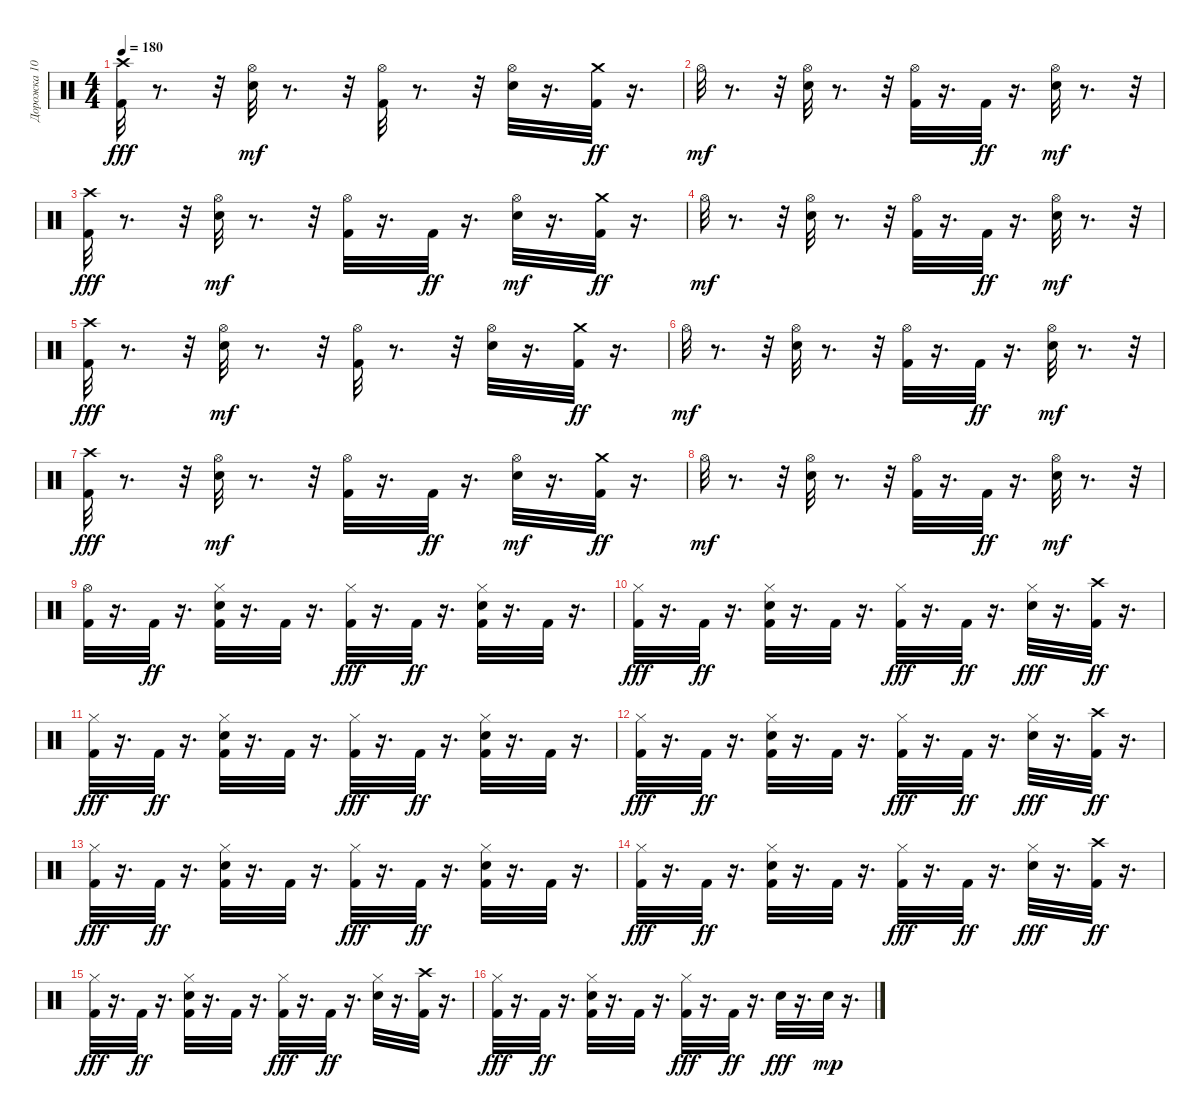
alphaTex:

\track ("Дорожка 10" "Дорожка 10") {instrument percussion}
\staff {score}
\articulation defaults
\ts (4 4)
\tempo 180
\clef neutral
\ks c
("Kick (hit) 2" "Crash high (hit)").32{dy fff} r.8{d} r.32 ("Snare (hit) 2" "Hi-Hat (open)").32{dy mf} r.8{d} r.32 ("Kick (hit) 2" "Hi-Hat (open)").32 r.8{d} r.32 ("Snare (hit) 2" "Hi-Hat (open)").32 r.16{d} ("Crash medium (hit)" "Kick (hit) 2").32{dy ff} r.16{d} |
"Hi-Hat (open)".32{dy mf} r.8{d} r.32 ("Snare (hit) 2" "Hi-Hat (open)").32 r.8{d} r.32 ("Kick (hit) 2" "Hi-Hat (open)").32 r.16{d} "Kick (hit) 2".32{dy ff} r.16{d} ("Snare (hit) 2" "Hi-Hat (open)").32{dy mf} r.8{d} r.32 |
("Kick (hit) 2" "Crash high (hit)").32{dy fff} r.8{d} r.32 ("Snare (hit) 2" "Hi-Hat (open)").32{dy mf} r.8{d} r.32 ("Kick (hit) 2" "Hi-Hat (open)").32 r.16{d} "Kick (hit) 2".32{dy ff} r.16{d} ("Snare (hit) 2" "Hi-Hat (open)").32{dy mf} r.16{d} ("Crash medium (hit)" "Kick (hit) 2").32{dy ff} r.16{d} |
"Hi-Hat (open)".32{dy mf} r.8{d} r.32 ("Snare (hit) 2" "Hi-Hat (open)").32 r.8{d} r.32 ("Kick (hit) 2" "Hi-Hat (open)").32 r.16{d} "Kick (hit) 2".32{dy ff} r.16{d} ("Snare (hit) 2" "Hi-Hat (open)").32{dy mf} r.8{d} r.32 |
("Kick (hit) 2" "Crash high (hit)").32{dy fff} r.8{d} r.32 ("Snare (hit) 2" "Hi-Hat (open)").32{dy mf} r.8{d} r.32 ("Kick (hit) 2" "Hi-Hat (open)").32 r.8{d} r.32 ("Snare (hit) 2" "Hi-Hat (open)").32 r.16{d} ("Crash medium (hit)" "Kick (hit) 2").32{dy ff} r.16{d} |
"Hi-Hat (open)".32{dy mf} r.8{d} r.32 ("Snare (hit) 2" "Hi-Hat (open)").32 r.8{d} r.32 ("Kick (hit) 2" "Hi-Hat (open)").32 r.16{d} "Kick (hit) 2".32{dy ff} r.16{d} ("Snare (hit) 2" "Hi-Hat (open)").32{dy mf} r.8{d} r.32 |
("Kick (hit) 2" "Crash high (hit)").32{dy fff} r.8{d} r.32 ("Snare (hit) 2" "Hi-Hat (open)").32{dy mf} r.8{d} r.32 ("Kick (hit) 2" "Hi-Hat (open)").32 r.16{d} "Kick (hit) 2".32{dy ff} r.16{d} ("Snare (hit) 2" "Hi-Hat (open)").32{dy mf} r.16{d} ("Crash medium (hit)" "Kick (hit) 2").32{dy ff} r.16{d} |
"Hi-Hat (open)".32{dy mf} r.8{d} r.32 ("Snare (hit) 2" "Hi-Hat (open)").32 r.8{d} r.32 ("Kick (hit) 2" "Hi-Hat (open)").32 r.16{d} "Kick (hit) 2".32{dy ff} r.16{d} ("Snare (hit) 2" "Hi-Hat (open)").32{dy mf} r.8{d} r.32 |
("Kick (hit) 2" "Hi-Hat (open)").32 r.16{d} "Kick (hit) 2".32{dy ff} r.16{d} ("Kick (hit) 2" "Snare (hit) 2" "Hi-Hat (closed)").32 r.16{d} "Kick (hit) 2".32 r.16{d} ("Kick (hit) 2" "Hi-Hat (closed)").32{dy fff} r.16{d} "Kick (hit) 2".32{dy ff} r.16{d} ("Kick (hit) 2" "Snare (hit) 2" "Hi-Hat (closed)").32 r.16{d} "Kick (hit) 2".32 r.16{d} |
("Hi-Hat (closed)" "Kick (hit) 2").32{dy fff} r.16{d} "Kick (hit) 2".32{dy ff} r.16{d} ("Kick (hit) 2" "Snare (hit) 2" "Hi-Hat (closed)").32 r.16{d} "Kick (hit) 2".32 r.16{d} ("Kick (hit) 2" "Hi-Hat (closed)").32{dy fff} r.16{d} "Kick (hit) 2".32{dy ff} r.16{d} ("Snare (hit) 2" "Hi-Hat (closed)").32{dy fff} r.16{d} ("Kick (hit) 2" "Crash high (hit)").32{dy ff} r.16{d} |
("Kick (hit) 2" "Hi-Hat (closed)").32{dy fff} r.16{d} "Kick (hit) 2".32{dy ff} r.16{d} ("Kick (hit) 2" "Snare (hit) 2" "Hi-Hat (closed)").32 r.16{d} "Kick (hit) 2".32 r.16{d} ("Kick (hit) 2" "Hi-Hat (closed)").32{dy fff} r.16{d} "Kick (hit) 2".32{dy ff} r.16{d} ("Kick (hit) 2" "Snare (hit) 2" "Hi-Hat (closed)").32 r.16{d} "Kick (hit) 2".32 r.16{d} |
("Hi-Hat (closed)" "Kick (hit) 2").32{dy fff} r.16{d} "Kick (hit) 2".32{dy ff} r.16{d} ("Kick (hit) 2" "Snare (hit) 2" "Hi-Hat (closed)").32 r.16{d} "Kick (hit) 2".32 r.16{d} ("Kick (hit) 2" "Hi-Hat (closed)").32{dy fff} r.16{d} "Kick (hit) 2".32{dy ff} r.16{d} ("Snare (hit) 2" "Hi-Hat (closed)").32{dy fff} r.16{d} ("Kick (hit) 2" "Crash high (hit)").32{dy ff} r.16{d} |
("Kick (hit) 2" "Hi-Hat (closed)").32{dy fff} r.16{d} "Kick (hit) 2".32{dy ff} r.16{d} ("Kick (hit) 2" "Snare (hit) 2" "Hi-Hat (closed)").32 r.16{d} "Kick (hit) 2".32 r.16{d} ("Kick (hit) 2" "Hi-Hat (closed)").32{dy fff} r.16{d} "Kick (hit) 2".32{dy ff} r.16{d} ("Kick (hit) 2" "Snare (hit) 2" "Hi-Hat (closed)").32 r.16{d} "Kick (hit) 2".32 r.16{d} |
("Hi-Hat (closed)" "Kick (hit) 2").32{dy fff} r.16{d} "Kick (hit) 2".32{dy ff} r.16{d} ("Kick (hit) 2" "Snare (hit) 2" "Hi-Hat (closed)").32 r.16{d} "Kick (hit) 2".32 r.16{d} ("Kick (hit) 2" "Hi-Hat (closed)").32{dy fff} r.16{d} "Kick (hit) 2".32{dy ff} r.16{d} ("Snare (hit) 2" "Hi-Hat (closed)").32{dy fff} r.16{d} ("Kick (hit) 2" "Crash high (hit)").32{dy ff} r.16{d} |
("Kick (hit) 2" "Hi-Hat (closed)").32{dy fff} r.16{d} "Kick (hit) 2".32{dy ff} r.16{d} ("Kick (hit) 2" "Snare (hit) 2" "Hi-Hat (closed)").32 r.16{d} "Kick (hit) 2".32 r.16{d} ("Kick (hit) 2" "Hi-Hat (closed)").32{dy fff} r.16{d} "Kick (hit) 2".32{dy ff} r.16{d} ("Snare (hit) 2" "Hi-Hat (closed)").32 r.16{d} ("Crash high (hit)" "Kick (hit) 2").32 r.16{d} |
("Hi-Hat (closed)" "Kick (hit) 2").32{dy fff} r.16{d} "Kick (hit) 2".32{dy ff} r.16{d} ("Kick (hit) 2" "Snare (hit) 2" "Hi-Hat (closed)").32 r.16{d} "Kick (hit) 2".32 r.16{d} ("Kick (hit) 2" "Hi-Hat (closed)").32{dy fff} r.16{d} "Kick (hit) 2".32{dy ff} r.16{d} "Snare (hit) 2".32{dy fff} r.16{d} "Snare (hit) 2".32{dy mp} r.16{d}
